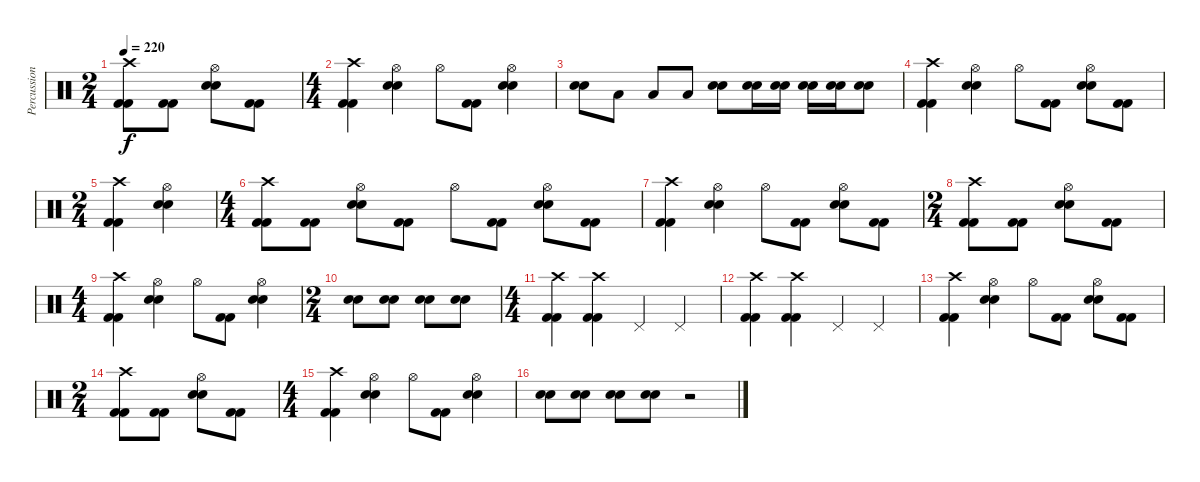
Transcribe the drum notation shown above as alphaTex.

\track ("Percussion" "Percussion") {instrument percussion}
\staff {score}
\articulation defaults
\ts (2 4)
\tempo 220
\clef neutral
\ks c
("Crash high (hit)" "Kick (hit) 2" "Kick (hit) 2").8{dy f} ("Kick (hit) 2" "Kick (hit) 2").8 ("Hi-Hat (open)" "Electric Snare (hit)" "Electric Snare (hit)").8 ("Kick (hit) 2" "Kick (hit) 2").8 |
\ts (4 4)
("Crash high (hit)" "Kick (hit) 2" "Kick (hit) 2").4 ("Hi-Hat (open)" "Electric Snare (hit)" "Electric Snare (hit)").4 "Hi-Hat (open)".8 ("Kick (hit) 2" "Kick (hit) 2").8 ("Hi-Hat (open)" "Electric Snare (hit)" "Electric Snare (hit)").4 |
("Electric Snare (hit)" "Electric Snare (hit)").8 "Low Tom (hit)".8 "Low Tom (hit)".8 "Low Tom (hit)".8 ("Electric Snare (hit)" "Electric Snare (hit)").8 ("Electric Snare (hit)" "Electric Snare (hit)").16 ("Electric Snare (hit)" "Electric Snare (hit)").16 ("Electric Snare (hit)" "Electric Snare (hit)").16 ("Electric Snare (hit)" "Electric Snare (hit)").16 ("Electric Snare (hit)" "Electric Snare (hit)").8 |
("Crash high (hit)" "Kick (hit) 2" "Kick (hit) 2").4 ("Hi-Hat (open)" "Electric Snare (hit)" "Electric Snare (hit)").4 "Hi-Hat (open)".8 ("Kick (hit) 2" "Kick (hit) 2").8 ("Hi-Hat (open)" "Electric Snare (hit)" "Electric Snare (hit)").8 ("Kick (hit) 2" "Kick (hit) 2").8 |
\ts (2 4)
("Crash high (hit)" "Kick (hit) 2" "Kick (hit) 2").4 ("Hi-Hat (open)" "Electric Snare (hit)" "Electric Snare (hit)").4 |
\ts (4 4)
("Crash high (hit)" "Kick (hit) 2" "Kick (hit) 2").8 ("Kick (hit) 2" "Kick (hit) 2").8 ("Hi-Hat (open)" "Electric Snare (hit)" "Electric Snare (hit)").8 ("Kick (hit) 2" "Kick (hit) 2").8 "Hi-Hat (open)".8 ("Kick (hit) 2" "Kick (hit) 2").8 ("Hi-Hat (open)" "Electric Snare (hit)" "Electric Snare (hit)").8 ("Kick (hit) 2" "Kick (hit) 2").8 |
("Crash high (hit)" "Kick (hit) 2" "Kick (hit) 2").4 ("Hi-Hat (open)" "Electric Snare (hit)" "Electric Snare (hit)").4 "Hi-Hat (open)".8 ("Kick (hit) 2" "Kick (hit) 2").8 ("Hi-Hat (open)" "Electric Snare (hit)" "Electric Snare (hit)").8 ("Kick (hit) 2" "Kick (hit) 2").8 |
\ts (2 4)
("Crash high (hit)" "Kick (hit) 2" "Kick (hit) 2").8 ("Kick (hit) 2" "Kick (hit) 2").8 ("Hi-Hat (open)" "Electric Snare (hit)" "Electric Snare (hit)").8 ("Kick (hit) 2" "Kick (hit) 2").8 |
\ts (4 4)
("Crash high (hit)" "Kick (hit) 2" "Kick (hit) 2").4 ("Hi-Hat (open)" "Electric Snare (hit)" "Electric Snare (hit)").4 "Hi-Hat (open)".8 ("Kick (hit) 2" "Kick (hit) 2").8 ("Hi-Hat (open)" "Electric Snare (hit)" "Electric Snare (hit)").4 |
\ts (2 4)
("Electric Snare (hit)" "Electric Snare (hit)").8 ("Electric Snare (hit)" "Electric Snare (hit)").8 ("Electric Snare (hit)" "Electric Snare (hit)").8 ("Electric Snare (hit)" "Electric Snare (hit)").8 |
\ts (4 4)
("Crash high (hit)" "Kick (hit) 2" "Kick (hit) 2").4 ("Crash high (hit)" "Kick (hit) 2" "Kick (hit) 2").4 "Pedal Hi-Hat (hit)".4 "Pedal Hi-Hat (hit)".4 |
("Crash high (hit)" "Kick (hit) 2" "Kick (hit) 2").4 ("Crash high (hit)" "Kick (hit) 2" "Kick (hit) 2").4 "Pedal Hi-Hat (hit)".4 "Pedal Hi-Hat (hit)".4 |
("Crash high (hit)" "Kick (hit) 2" "Kick (hit) 2").4 ("Hi-Hat (open)" "Electric Snare (hit)" "Electric Snare (hit)").4 "Hi-Hat (open)".8 ("Kick (hit) 2" "Kick (hit) 2").8 ("Hi-Hat (open)" "Electric Snare (hit)" "Electric Snare (hit)").8 ("Kick (hit) 2" "Kick (hit) 2").8 |
\ts (2 4)
("Crash high (hit)" "Kick (hit) 2" "Kick (hit) 2").8 ("Kick (hit) 2" "Kick (hit) 2").8 ("Hi-Hat (open)" "Electric Snare (hit)" "Electric Snare (hit)").8 ("Kick (hit) 2" "Kick (hit) 2").8 |
\ts (4 4)
("Crash high (hit)" "Kick (hit) 2" "Kick (hit) 2").4 ("Hi-Hat (open)" "Electric Snare (hit)" "Electric Snare (hit)").4 "Hi-Hat (open)".8 ("Kick (hit) 2" "Kick (hit) 2").8 ("Hi-Hat (open)" "Electric Snare (hit)" "Electric Snare (hit)").4 |
("Electric Snare (hit)" "Electric Snare (hit)").8 ("Electric Snare (hit)" "Electric Snare (hit)").8 ("Electric Snare (hit)" "Electric Snare (hit)").8 ("Electric Snare (hit)" "Electric Snare (hit)").8 r.2
